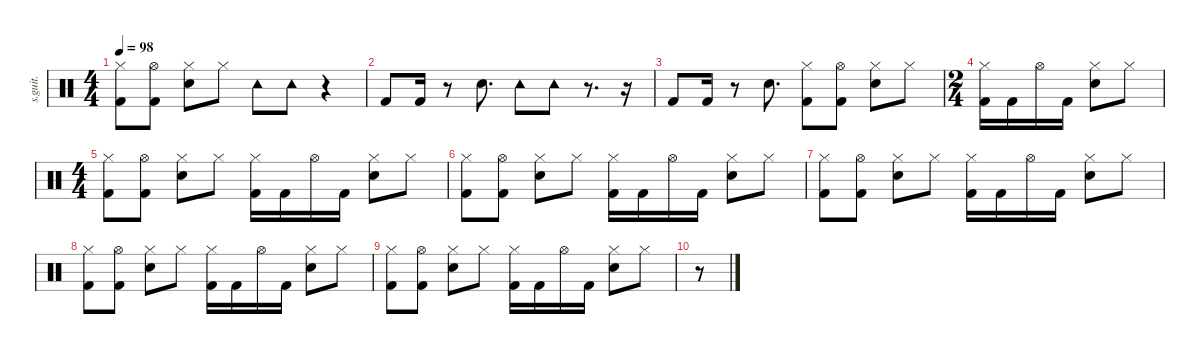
\defaultSystemsLayout 4
\hideDynamics
\bracketExtendMode nobrackets
\track ("" "s.guit.") {instrument percussion}
\staff {score}
\articulation defaults
\ts (4 4)
\tempo 98
\clef neutral
\ks c
("Hi-Hat (closed)" "Kick (hit) 2").8{dy ff} ("Hi-Hat (open)" "Kick (hit) 2").8 ("Hi-Hat (closed)" "Snare (hit) 2").8 "Hi-Hat (closed)".8 "Tambourine (hit)".8 "Tambourine (hit)".8 r.4 |
"Kick (hit) 2".8 "Kick (hit) 2".16 r.8 "Snare (hit) 2".8{d} "Tambourine (hit)".8 "Tambourine (hit)".8 r.8{d} r.16 |
"Kick (hit) 2".8 "Kick (hit) 2".16 r.8 "Snare (hit) 2".8{d} ("Hi-Hat (closed)" "Kick (hit) 2").8 ("Hi-Hat (open)" "Kick (hit) 2").8 ("Hi-Hat (closed)" "Snare (hit) 2").8 "Hi-Hat (closed)".8 |
\ts (2 4)
\beaming (8 2 2 2 2)
("Hi-Hat (closed)" "Kick (hit) 2").16 "Kick (hit) 2".16 "Hi-Hat (open)".16 "Kick (hit) 2".16 ("Hi-Hat (closed)" "Snare (hit) 2").8 "Hi-Hat (closed)".8 |
\ts (4 4)
\beaming (8 2 2 2 2)
("Hi-Hat (closed)" "Kick (hit) 2").8 ("Hi-Hat (open)" "Kick (hit) 2").8 ("Hi-Hat (closed)" "Snare (hit) 2").8 "Hi-Hat (closed)".8 ("Hi-Hat (closed)" "Kick (hit) 2").16 "Kick (hit) 2".16 "Hi-Hat (open)".16 "Kick (hit) 2".16 ("Hi-Hat (closed)" "Snare (hit) 2").8 "Hi-Hat (closed)".8 |
("Hi-Hat (closed)" "Kick (hit) 2").8 ("Hi-Hat (open)" "Kick (hit) 2").8 ("Hi-Hat (closed)" "Snare (hit) 2").8 "Hi-Hat (closed)".8 ("Hi-Hat (closed)" "Kick (hit) 2").16 "Kick (hit) 2".16 "Hi-Hat (open)".16 "Kick (hit) 2".16 ("Hi-Hat (closed)" "Snare (hit) 2").8 "Hi-Hat (closed)".8 |
("Hi-Hat (closed)" "Kick (hit) 2").8 ("Hi-Hat (open)" "Kick (hit) 2").8 ("Hi-Hat (closed)" "Snare (hit) 2").8 "Hi-Hat (closed)".8 ("Hi-Hat (closed)" "Kick (hit) 2").16 "Kick (hit) 2".16 "Hi-Hat (open)".16 "Kick (hit) 2".16 ("Hi-Hat (closed)" "Snare (hit) 2").8 "Hi-Hat (closed)".8 |
("Hi-Hat (closed)" "Kick (hit) 2").8 ("Hi-Hat (open)" "Kick (hit) 2").8 ("Hi-Hat (closed)" "Snare (hit) 2").8 "Hi-Hat (closed)".8 ("Hi-Hat (closed)" "Kick (hit) 2").16 "Kick (hit) 2".16 "Hi-Hat (open)".16 "Kick (hit) 2".16 ("Hi-Hat (closed)" "Snare (hit) 2").8 "Hi-Hat (closed)".8 |
("Hi-Hat (closed)" "Kick (hit) 2").8 ("Hi-Hat (open)" "Kick (hit) 2").8 ("Hi-Hat (closed)" "Snare (hit) 2").8 "Hi-Hat (closed)".8 ("Hi-Hat (closed)" "Kick (hit) 2").16 "Kick (hit) 2".16 "Hi-Hat (open)".16 "Kick (hit) 2".16 ("Hi-Hat (closed)" "Snare (hit) 2").8 "Hi-Hat (closed)".8 |
r.8
